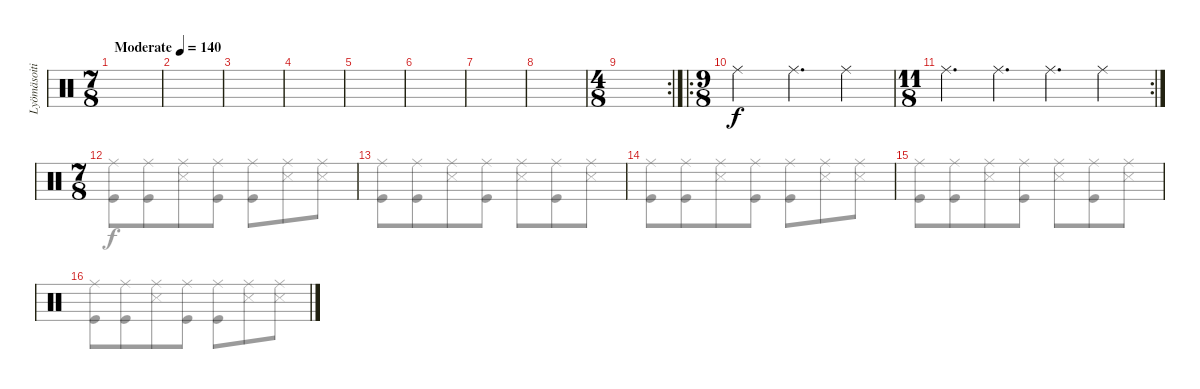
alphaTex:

\track ("Lyömäsoitin" "Lyömäsoiti") {instrument percussion}
\staff {score}
\articulation defaults
\voice
\ts (7 8)
\tempo (140 "Moderate")
\clef neutral
\ks c
|
|
|
|
|
|
|
|
\rc 2
\ts (4 8)
|
\ro
\ts (9 8)
"Ride (middle)".2 "Ride (middle)".4{d} "Ride (middle)".4 |
\rc 2
\ts (11 8)
"Ride (middle)".4{d} "Ride (middle)".4{d} "Ride (middle)".4{d} "Ride (middle)".4 |
\ts (7 8)
|
|
|
|
\voice
\clef neutral
\ottava regular
\simile none
\ks c
|
|
|
|
|
|
|
|
|
|
|
("Ride (middle)" "Kick (hit)").8 ("Ride (middle)" "Kick (hit)").8 ("Ride (middle)" "Snare (side stick) 3").8 ("Ride (middle)" "Kick (hit)").8 ("Ride (middle)" "Kick (hit)").8 ("Ride (middle)" "Snare (side stick) 3").8 ("Ride (middle)" "Snare (side stick) 3").8 |
("Ride (middle)" "Kick (hit)").8 ("Ride (middle)" "Kick (hit)").8 ("Ride (middle)" "Snare (side stick) 3").8 ("Ride (middle)" "Kick (hit)").8 ("Ride (middle)" "Snare (side stick) 3").8 ("Ride (middle)" "Kick (hit)").8 ("Ride (middle)" "Snare (side stick) 3").8 |
("Ride (middle)" "Kick (hit)").8 ("Ride (middle)" "Kick (hit)").8 ("Ride (middle)" "Snare (side stick) 3").8 ("Ride (middle)" "Kick (hit)").8 ("Ride (middle)" "Kick (hit)").8 ("Ride (middle)" "Snare (side stick) 3").8 ("Ride (middle)" "Snare (side stick) 3").8 |
("Ride (middle)" "Kick (hit)").8 ("Ride (middle)" "Kick (hit)").8 ("Ride (middle)" "Snare (side stick) 3").8 ("Ride (middle)" "Kick (hit)").8 ("Ride (middle)" "Snare (side stick) 3").8 ("Ride (middle)" "Kick (hit)").8 ("Ride (middle)" "Snare (side stick) 3").8 |
("Ride (middle)" "Kick (hit)").8 ("Ride (middle)" "Kick (hit)").8 ("Ride (middle)" "Snare (side stick) 3").8 ("Ride (middle)" "Kick (hit)").8 ("Ride (middle)" "Kick (hit)").8 ("Ride (middle)" "Snare (side stick) 3").8 ("Ride (middle)" "Snare (side stick) 3").8
